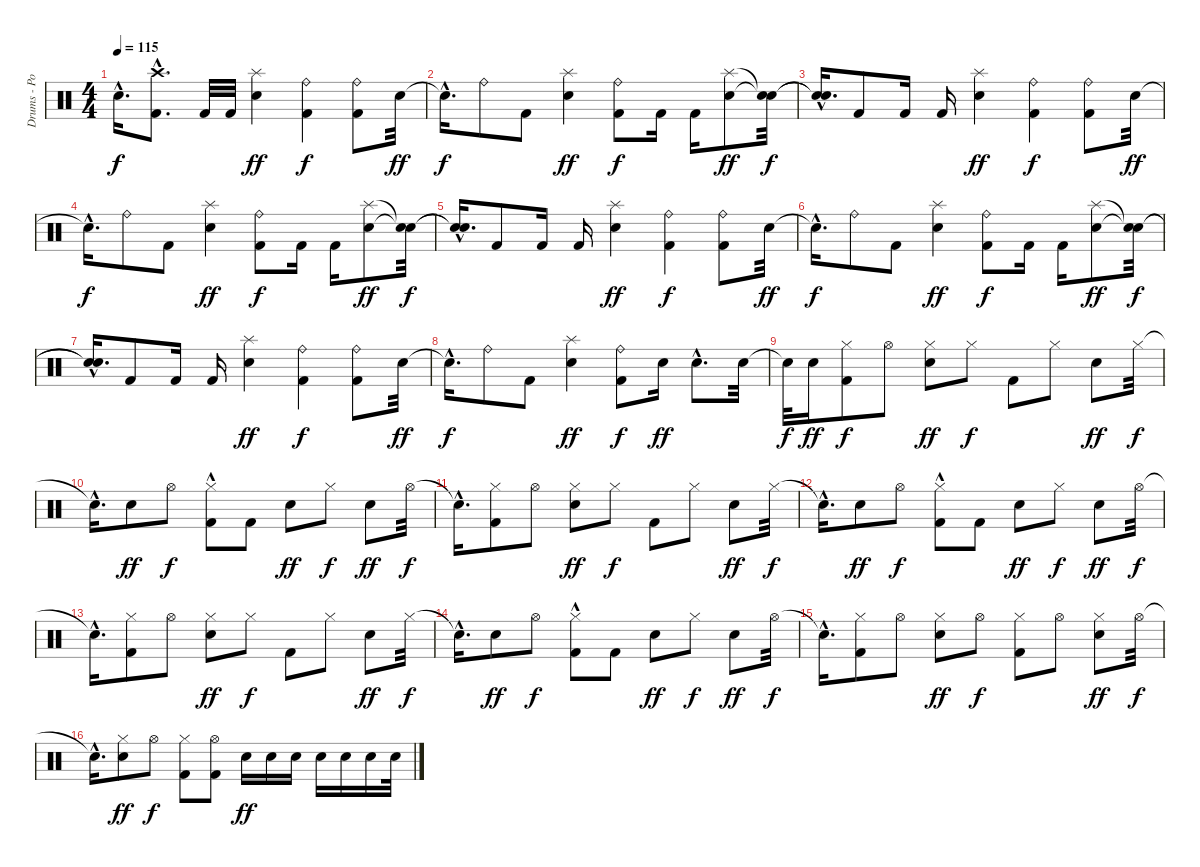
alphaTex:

\track ("Drums - Portnoy" "Drums - Po") {instrument percussion}
\staff {score}
\articulation defaults
\ts (4 4)
\tempo 115
\clef neutral
\ks c "Snare (hit)"{hac t}.16{d dy f}
("Crash high (hit)" "Kick (hit) 2"{hac}).8{d} "Kick (hit) 2".32 "Kick (hit) 2".32 ("Splash (hit)" "Electric Snare (hit)").4{dy ff} ("Kick (hit) 2" "Ride (bell)").4{dy f} ("Kick (hit) 2" "Ride (bell)").8 "Electric Snare (hit)".32{dy ff} |
"Snare (hit)"{hac t}.16{d dy f} "Ride (bell)".8 "Kick (hit) 2".8 ("Splash (hit)" "Electric Snare (hit)").4{dy ff} ("Kick (hit) 2" "Ride (bell)").8{dy f} "Kick (hit) 2".16 "Kick (hit) 2".16 ("Splash (hit)" "Electric Snare (hit)").8{dy ff} ("Snare (hit)"{t} "Snare (hit)"{t}).32{dy f} |
("Snare (hit)"{t} "Snare (hit)"{hac t}).16{d} "Kick (hit) 2".8 "Kick (hit) 2".16 "Kick (hit) 2".16 ("Splash (hit)" "Electric Snare (hit)").4{dy ff} ("Kick (hit) 2" "Ride (bell)").4{dy f} ("Kick (hit) 2" "Ride (bell)").8 "Electric Snare (hit)".32{dy ff} |
"Snare (hit)"{hac t}.16{d dy f} "Ride (bell)".8 "Kick (hit) 2".8 ("Splash (hit)" "Electric Snare (hit)").4{dy ff} ("Kick (hit) 2" "Ride (bell)").8{dy f} "Kick (hit) 2".16 "Kick (hit) 2".16 ("Splash (hit)" "Electric Snare (hit)").8{dy ff} ("Snare (hit)"{t} "Snare (hit)"{t}).32{dy f} |
("Snare (hit)"{t} "Snare (hit)"{hac t}).16{d} "Kick (hit) 2".8 "Kick (hit) 2".16 "Kick (hit) 2".16 ("Splash (hit)" "Electric Snare (hit)").4{dy ff} ("Kick (hit) 2" "Ride (bell)").4{dy f} ("Kick (hit) 2" "Ride (bell)").8 "Electric Snare (hit)".32{dy ff} |
"Snare (hit)"{hac t}.16{d dy f} "Ride (bell)".8 "Kick (hit) 2".8 ("Splash (hit)" "Electric Snare (hit)").4{dy ff} ("Kick (hit) 2" "Ride (bell)").8{dy f} "Kick (hit) 2".16 "Kick (hit) 2".16 ("Splash (hit)" "Electric Snare (hit)").8{dy ff} ("Snare (hit)"{t} "Snare (hit)"{t}).32{dy f} |
("Snare (hit)"{hac t} "Snare (hit)"{hac t}).16{d} "Kick (hit) 2".8 "Kick (hit) 2".16 "Kick (hit) 2".16 ("Splash (hit)" "Electric Snare (hit)").4{dy ff} ("Kick (hit) 2" "Ride (bell)").4{dy f} ("Kick (hit) 2" "Ride (bell)").8 "Electric Snare (hit)".32{dy ff} |
"Snare (hit)"{hac t}.16{d dy f} "Ride (bell)".8 "Kick (hit) 2".8 ("Splash (hit)" "Electric Snare (hit)").4{dy ff} ("Kick (hit) 2" "Ride (bell)").8{dy f} "Electric Snare (hit)".16{dy ff} "Electric Snare (hit)"{hac}.8{d} "Electric Snare (hit)".32 |
"Snare (hit)"{t}.32{dy f} "Electric Snare (hit)".16{dy ff} ("Kick (hit) 2" "Hi-Hat (closed)").8{dy f} "Hi-Hat (open)".8 ("Hi-Hat (closed)" "Electric Snare (hit)").8{dy ff} "Hi-Hat (closed)".8{dy f} "Kick (hit) 2".8 "Hi-Hat (closed)".8 "Electric Snare (hit)".8{dy ff} "Hi-Hat (closed)".32{dy f} |
"Snare (hit)"{hac t}.16{d} "Electric Snare (hit)".8{dy ff} "Hi-Hat (open)".8{dy f} ("Kick (hit) 2" "Hi-Hat (closed)"{hac}).8 "Kick (hit) 2".8 "Electric Snare (hit)".8{dy ff} "Hi-Hat (closed)".8{dy f} "Electric Snare (hit)".8{dy ff} "Hi-Hat (open)".32{dy f} |
"Snare (hit)"{hac t}.16{d} ("Hi-Hat (closed)" "Kick (hit) 2").8 "Hi-Hat (open)".8 ("Hi-Hat (closed)" "Electric Snare (hit)").8{dy ff} "Hi-Hat (closed)".8{dy f} "Kick (hit) 2".8 "Hi-Hat (closed)".8 "Electric Snare (hit)".8{dy ff} "Hi-Hat (closed)".32{dy f} |
"Snare (hit)"{hac t}.16{d} "Electric Snare (hit)".8{dy ff} "Hi-Hat (open)".8{dy f} ("Kick (hit) 2" "Hi-Hat (closed)"{hac}).8 "Kick (hit) 2".8 "Electric Snare (hit)".8{dy ff} "Hi-Hat (closed)".8{dy f} "Electric Snare (hit)".8{dy ff} "Hi-Hat (open)".32{dy f} |
"Snare (hit)"{hac t}.16{d} ("Hi-Hat (closed)" "Kick (hit) 2").8 "Hi-Hat (open)".8 ("Hi-Hat (closed)" "Electric Snare (hit)").8{dy ff} "Hi-Hat (closed)".8{dy f} "Kick (hit) 2".8 "Hi-Hat (closed)".8 "Electric Snare (hit)".8{dy ff} "Hi-Hat (closed)".32{dy f} |
"Snare (hit)"{hac t}.16{d} "Electric Snare (hit)".8{dy ff} "Hi-Hat (open)".8{dy f} ("Kick (hit) 2" "Hi-Hat (closed)"{hac}).8 "Kick (hit) 2".8 "Electric Snare (hit)".8{dy ff} "Hi-Hat (closed)".8{dy f} "Electric Snare (hit)".8{dy ff} "Hi-Hat (open)".32{dy f} |
"Snare (hit)"{hac t}.16{d} ("Hi-Hat (closed)" "Kick (hit) 2").8 "Hi-Hat (open)".8 ("Hi-Hat (closed)" "Electric Snare (hit)").8{dy ff} "Hi-Hat (open)".8{dy f} ("Kick (hit) 2" "Hi-Hat (closed)").8 "Hi-Hat (open)".8 ("Hi-Hat (closed)" "Electric Snare (hit)").8{dy ff} "Hi-Hat (open)".32{dy f} |
"Snare (hit)"{hac t}.16{d} ("Hi-Hat (closed)" "Electric Snare (hit)").8{dy ff} "Hi-Hat (open)".8{dy f} ("Kick (hit) 2" "Hi-Hat (closed)").8 ("Kick (hit) 2" "Hi-Hat (open)").8 "Electric Snare (hit)".16{dy ff} "Electric Snare (hit)".16 "Electric Snare (hit)".16 "Electric Snare (hit)".16 "Electric Snare (hit)".16 "Electric Snare (hit)".16 "Electric Snare (hit)".32
